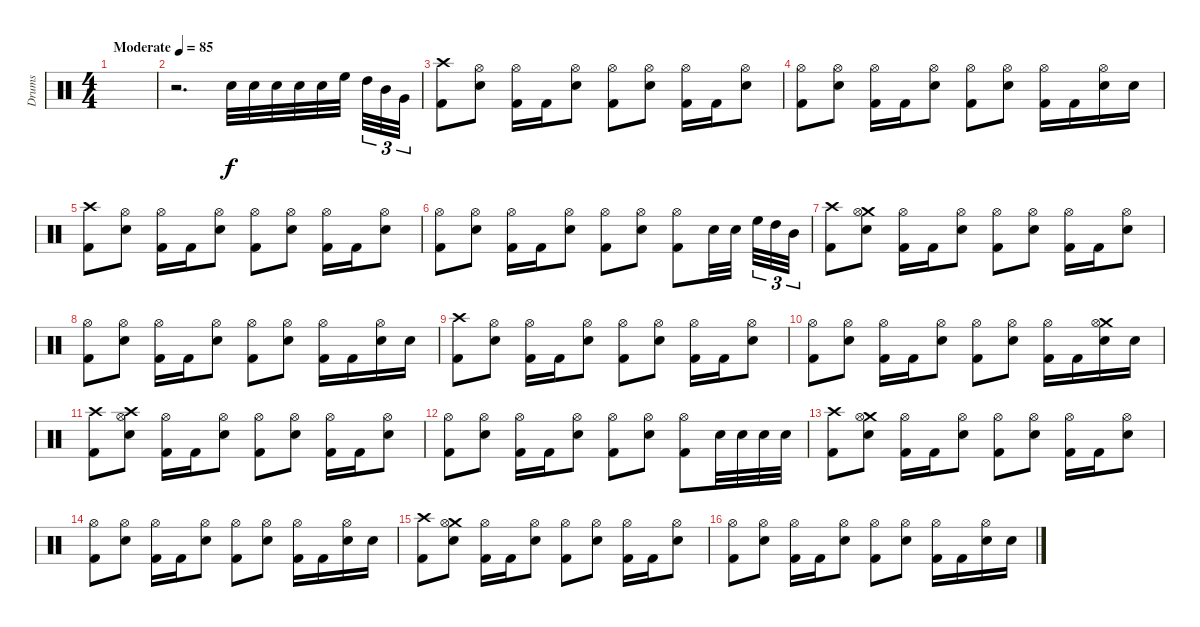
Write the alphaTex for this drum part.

\track ("Drums" "Drums") {instrument percussion}
\staff {score}
\articulation defaults
\ts (4 4)
\tempo (85 "Moderate")
\clef neutral
\ks c
|
r.2{d} "Electric Snare (hit)".32 "Electric Snare (hit)".32 "Electric Snare (hit)".32 "Electric Snare (hit)".32 "Electric Snare (hit)".32 "High Floor Tom (hit)".32{beam splitsecondary} "High Tom (hit)".32{tu (3 2)} "Mid Tom (hit)".32{tu (3 2)} "Very Low Tom (hit)".32{tu (3 2)} |
("Crash high (hit)" "Kick (hit) 2").8 ("Snare (hit) 2" "Hi-Hat (open)").8 ("Kick (hit) 2" "Hi-Hat (open)").16 "Kick (hit) 2".16 ("Snare (hit) 2" "Hi-Hat (open)").8 ("Kick (hit) 2" "Hi-Hat (open)").8 ("Snare (hit) 2" "Hi-Hat (open)").8 ("Kick (hit) 2" "Hi-Hat (open)").16 "Kick (hit) 2".16 ("Snare (hit) 2" "Hi-Hat (open)").8 |
("Kick (hit) 2" "Hi-Hat (open)").8 ("Snare (hit) 2" "Hi-Hat (open)").8 ("Kick (hit) 2" "Hi-Hat (open)").16 "Kick (hit) 2".16 ("Snare (hit) 2" "Hi-Hat (open)").8 ("Kick (hit) 2" "Hi-Hat (open)").8 ("Snare (hit) 2" "Hi-Hat (open)").8 ("Kick (hit) 2" "Hi-Hat (open)").16 "Kick (hit) 2".16 ("Snare (hit) 2" "Hi-Hat (open)").16 "Snare (hit) 2".16 |
("Crash high (hit)" "Kick (hit) 2").8 ("Snare (hit) 2" "Hi-Hat (open)").8 ("Kick (hit) 2" "Hi-Hat (open)").16 "Kick (hit) 2".16 ("Snare (hit) 2" "Hi-Hat (open)").8 ("Kick (hit) 2" "Hi-Hat (open)").8 ("Snare (hit) 2" "Hi-Hat (open)").8 ("Kick (hit) 2" "Hi-Hat (open)").16 "Kick (hit) 2".16 ("Snare (hit) 2" "Hi-Hat (open)").8 |
("Kick (hit) 2" "Hi-Hat (open)").8 ("Snare (hit) 2" "Hi-Hat (open)").8 ("Kick (hit) 2" "Hi-Hat (open)").16 "Kick (hit) 2".16 ("Snare (hit) 2" "Hi-Hat (open)").8 ("Kick (hit) 2" "Hi-Hat (open)").8 ("Snare (hit) 2" "Hi-Hat (open)").8 ("Kick (hit) 2" "Hi-Hat (open)").8 "Electric Snare (hit)".32 "Electric Snare (hit)".32{beam splitsecondary} "High Floor Tom (hit)".32{tu (3 2)} "High Tom (hit)".32{tu (3 2)} "Mid Tom (hit)".32{tu (3 2)} |
("Crash high (hit)" "Kick (hit) 2").8 ("Crash medium (hit)" "Snare (hit) 2" "Hi-Hat (open)").8 ("Kick (hit) 2" "Hi-Hat (open)").16 "Kick (hit) 2".16 ("Snare (hit) 2" "Hi-Hat (open)").8 ("Kick (hit) 2" "Hi-Hat (open)").8 ("Snare (hit) 2" "Hi-Hat (open)").8 ("Kick (hit) 2" "Hi-Hat (open)").16 "Kick (hit) 2".16 ("Snare (hit) 2" "Hi-Hat (open)").8 |
("Kick (hit) 2" "Hi-Hat (open)").8 ("Snare (hit) 2" "Hi-Hat (open)").8 ("Kick (hit) 2" "Hi-Hat (open)").16 "Kick (hit) 2".16 ("Snare (hit) 2" "Hi-Hat (open)").8 ("Kick (hit) 2" "Hi-Hat (open)").8 ("Snare (hit) 2" "Hi-Hat (open)").8 ("Kick (hit) 2" "Hi-Hat (open)").16 "Kick (hit) 2".16 ("Snare (hit) 2" "Hi-Hat (open)").16 "Snare (hit) 2".16 |
("Crash high (hit)" "Kick (hit) 2").8 ("Snare (hit) 2" "Hi-Hat (open)").8 ("Kick (hit) 2" "Hi-Hat (open)").16 "Kick (hit) 2".16 ("Snare (hit) 2" "Hi-Hat (open)").8 ("Kick (hit) 2" "Hi-Hat (open)").8 ("Snare (hit) 2" "Hi-Hat (open)").8 ("Kick (hit) 2" "Hi-Hat (open)").16 "Kick (hit) 2".16 ("Snare (hit) 2" "Hi-Hat (open)").8 |
("Kick (hit) 2" "Hi-Hat (open)").8 ("Snare (hit) 2" "Hi-Hat (open)").8 ("Kick (hit) 2" "Hi-Hat (open)").16 "Kick (hit) 2".16 ("Snare (hit) 2" "Hi-Hat (open)").8 ("Kick (hit) 2" "Hi-Hat (open)").8 ("Snare (hit) 2" "Hi-Hat (open)").8 ("Kick (hit) 2" "Hi-Hat (open)").16 "Kick (hit) 2".16 ("Crash medium (hit)" "Snare (hit) 2" "Hi-Hat (open)").16 "Snare (hit) 2".16 |
("Crash high (hit)" "Kick (hit) 2").8 ("Crash high (hit)" "Snare (hit) 2" "Hi-Hat (open)").8 ("Kick (hit) 2" "Hi-Hat (open)").16 "Kick (hit) 2".16 ("Snare (hit) 2" "Hi-Hat (open)").8 ("Kick (hit) 2" "Hi-Hat (open)").8 ("Snare (hit) 2" "Hi-Hat (open)").8 ("Kick (hit) 2" "Hi-Hat (open)").16 "Kick (hit) 2".16 ("Snare (hit) 2" "Hi-Hat (open)").8 |
("Kick (hit) 2" "Hi-Hat (open)").8 ("Snare (hit) 2" "Hi-Hat (open)").8 ("Kick (hit) 2" "Hi-Hat (open)").16 "Kick (hit) 2".16 ("Snare (hit) 2" "Hi-Hat (open)").8 ("Kick (hit) 2" "Hi-Hat (open)").8 ("Snare (hit) 2" "Hi-Hat (open)").8 ("Kick (hit) 2" "Hi-Hat (open)").8 "Electric Snare (hit)".32 "Electric Snare (hit)".32 "Electric Snare (hit)".32 "Electric Snare (hit)".32 |
("Crash high (hit)" "Kick (hit) 2").8 ("Crash medium (hit)" "Snare (hit) 2" "Hi-Hat (open)").8 ("Kick (hit) 2" "Hi-Hat (open)").16 "Kick (hit) 2".16 ("Snare (hit) 2" "Hi-Hat (open)").8 ("Kick (hit) 2" "Hi-Hat (open)").8 ("Snare (hit) 2" "Hi-Hat (open)").8 ("Kick (hit) 2" "Hi-Hat (open)").16 "Kick (hit) 2".16 ("Snare (hit) 2" "Hi-Hat (open)").8 |
("Kick (hit) 2" "Hi-Hat (open)").8 ("Snare (hit) 2" "Hi-Hat (open)").8 ("Kick (hit) 2" "Hi-Hat (open)").16 "Kick (hit) 2".16 ("Snare (hit) 2" "Hi-Hat (open)").8 ("Kick (hit) 2" "Hi-Hat (open)").8 ("Snare (hit) 2" "Hi-Hat (open)").8 ("Kick (hit) 2" "Hi-Hat (open)").16 "Kick (hit) 2".16 ("Snare (hit) 2" "Hi-Hat (open)").16 "Snare (hit) 2".16 |
("Crash high (hit)" "Kick (hit) 2").8 ("Crash medium (hit)" "Snare (hit) 2" "Hi-Hat (open)").8 ("Kick (hit) 2" "Hi-Hat (open)").16 "Kick (hit) 2".16 ("Snare (hit) 2" "Hi-Hat (open)").8 ("Kick (hit) 2" "Hi-Hat (open)").8 ("Snare (hit) 2" "Hi-Hat (open)").8 ("Kick (hit) 2" "Hi-Hat (open)").16 "Kick (hit) 2".16 ("Snare (hit) 2" "Hi-Hat (open)").8 |
("Kick (hit) 2" "Hi-Hat (open)").8 ("Snare (hit) 2" "Hi-Hat (open)").8 ("Kick (hit) 2" "Hi-Hat (open)").16 "Kick (hit) 2".16 ("Snare (hit) 2" "Hi-Hat (open)").8 ("Kick (hit) 2" "Hi-Hat (open)").8 ("Snare (hit) 2" "Hi-Hat (open)").8 ("Kick (hit) 2" "Hi-Hat (open)").16 "Kick (hit) 2".16 ("Snare (hit) 2" "Hi-Hat (open)").16 "Snare (hit) 2".16
